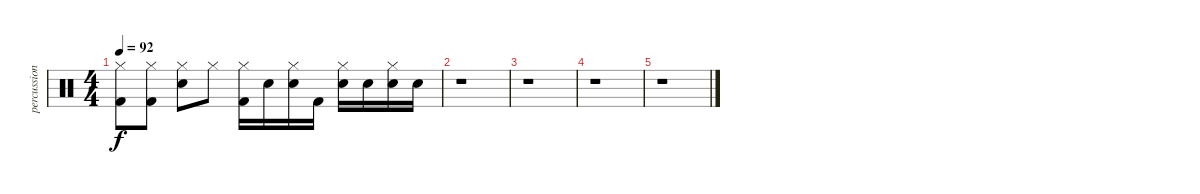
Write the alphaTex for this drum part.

\track ("percussion" "percussion") {instrument percussion}
\staff {score}
\articulation defaults
\ts (4 4)
\tempo 92
\clef neutral
\ks c
("Hi-Hat (closed)" "Kick (hit) 2").8{dy f} ("Hi-Hat (closed)" "Kick (hit) 2").8 ("Electric Snare (hit)" "Hi-Hat (closed)").8 "Hi-Hat (closed)".8 ("Hi-Hat (closed)" "Kick (hit) 2").16 "Electric Snare (hit)".16 ("Electric Snare (hit)" "Hi-Hat (closed)").16 "Kick (hit) 2".16 ("Electric Snare (hit)" "Hi-Hat (closed)").16 "Electric Snare (hit)".16 ("Electric Snare (hit)" "Hi-Hat (closed)").16 "Electric Snare (hit)".16 |
r.1 |
r.1 |
r.1 |
r.1
